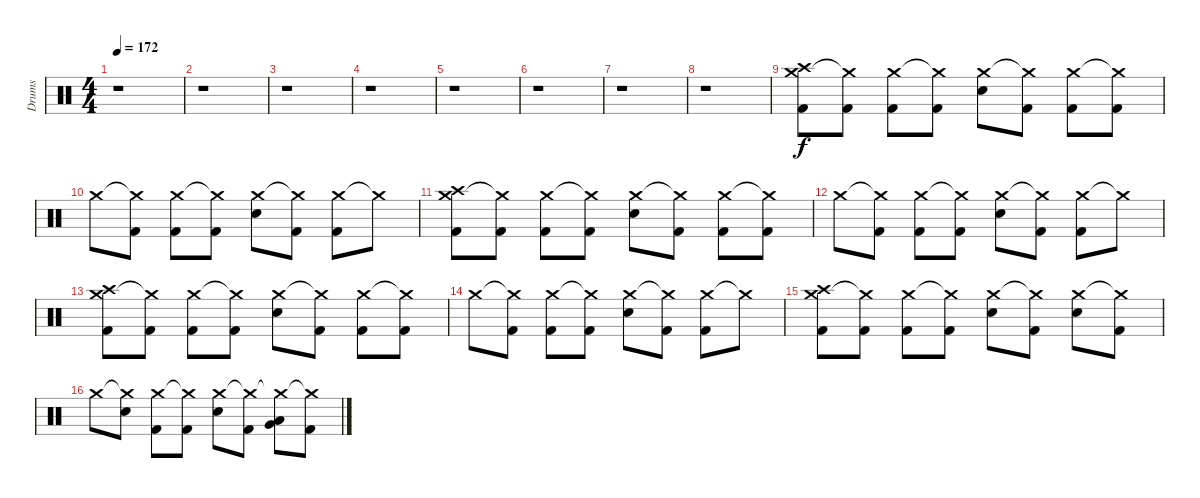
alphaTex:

\track ("Drums" "Drums") {instrument percussion}
\staff {score}
\articulation defaults
\ts (4 4)
\tempo 172
\clef neutral
\ks c
r.1{dy f} |
r.1 |
r.1 |
r.1 |
r.1 |
r.1 |
r.1 |
r.1 |
("Crash medium (hit)" "Crash high (hit)" "Kick (hit) 2").8 ("Crash medium (hit)"{t} "Kick (hit) 2").8 ("Crash medium (hit)" "Kick (hit) 2").8 ("Crash medium (hit)"{t} "Kick (hit) 2").8 ("Crash medium (hit)" "Electric Snare (hit)").8 ("Crash medium (hit)"{t} "Kick (hit) 2").8 ("Crash medium (hit)" "Kick (hit) 2").8 ("Crash medium (hit)"{t} "Kick (hit) 2").8 |
"Crash medium (hit)".8 ("Crash medium (hit)"{t} "Kick (hit) 2").8 ("Crash medium (hit)" "Kick (hit) 2").8 ("Crash medium (hit)"{t} "Kick (hit) 2").8 ("Crash medium (hit)" "Electric Snare (hit)").8 ("Crash medium (hit)"{t} "Kick (hit) 2").8 ("Crash medium (hit)" "Kick (hit) 2").8 "Crash medium (hit)"{t}.8 |
("Crash medium (hit)" "Crash high (hit)" "Kick (hit) 2").8 ("Crash medium (hit)"{t} "Kick (hit) 2").8 ("Crash medium (hit)" "Kick (hit) 2").8 ("Crash medium (hit)"{t} "Kick (hit) 2").8 ("Crash medium (hit)" "Electric Snare (hit)").8 ("Crash medium (hit)"{t} "Kick (hit) 2").8 ("Crash medium (hit)" "Kick (hit) 2").8 ("Crash medium (hit)"{t} "Kick (hit) 2").8 |
"Crash medium (hit)".8 ("Crash medium (hit)"{t} "Kick (hit) 2").8 ("Crash medium (hit)" "Kick (hit) 2").8 ("Crash medium (hit)"{t} "Kick (hit) 2").8 ("Crash medium (hit)" "Electric Snare (hit)").8 ("Crash medium (hit)"{t} "Kick (hit) 2").8 ("Crash medium (hit)" "Kick (hit) 2").8 "Crash medium (hit)"{t}.8 |
("Crash medium (hit)" "Crash high (hit)" "Kick (hit) 2").8 ("Crash medium (hit)"{t} "Kick (hit) 2").8 ("Crash medium (hit)" "Kick (hit) 2").8 ("Crash medium (hit)"{t} "Kick (hit) 2").8 ("Crash medium (hit)" "Electric Snare (hit)").8 ("Crash medium (hit)"{t} "Kick (hit) 2").8 ("Crash medium (hit)" "Kick (hit) 2").8 ("Crash medium (hit)"{t} "Kick (hit) 2").8 |
"Crash medium (hit)".8 ("Crash medium (hit)"{t} "Kick (hit) 2").8 ("Crash medium (hit)" "Kick (hit) 2").8 ("Crash medium (hit)"{t} "Kick (hit) 2").8 ("Crash medium (hit)" "Electric Snare (hit)").8 ("Crash medium (hit)"{t} "Kick (hit) 2").8 ("Crash medium (hit)" "Kick (hit) 2").8 "Crash medium (hit)"{t}.8 |
("Crash medium (hit)" "Crash high (hit)" "Kick (hit) 2").8 ("Crash medium (hit)"{t} "Kick (hit) 2").8 ("Crash medium (hit)" "Kick (hit) 2").8 ("Crash medium (hit)"{t} "Kick (hit) 2").8 ("Crash medium (hit)" "Electric Snare (hit)").8 ("Crash medium (hit)"{t} "Kick (hit) 2").8 ("Crash medium (hit)" "Electric Snare (hit)").8 ("Crash medium (hit)"{t} "Kick (hit) 2").8 |
"Crash medium (hit)".8 ("Crash medium (hit)"{t} "Electric Snare (hit)").8 ("Crash medium (hit)" "Kick (hit) 2").8 ("Crash medium (hit)"{t} "Kick (hit) 2").8 ("Crash medium (hit)" "Electric Snare (hit)").8 ("Crash medium (hit)"{t} "Kick (hit) 2").8 ("Crash medium (hit)"{t} "Low Floor Tom (hit)" "Very Low Tom (hit)").8 ("Crash medium (hit)"{t} "Kick (hit) 2").8
